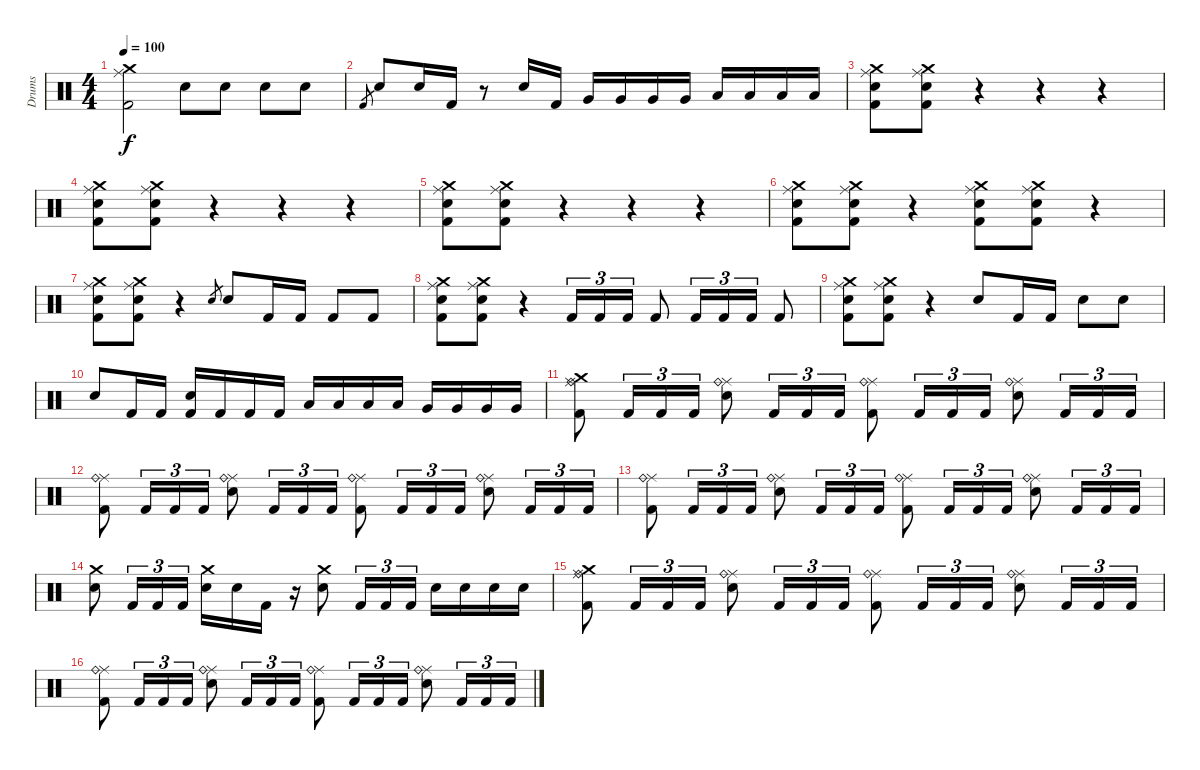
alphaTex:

\track ("Drums" "Drums") {instrument percussion}
\staff {score}
\articulation defaults
\ts (4 4)
\tempo 100
\clef neutral
\ks c
("Crash medium (hit)" "Ride (middle)" "Kick (hit) 2").2{dy f} "Snare (hit) 2".8 "Snare (hit) 2".8 "Snare (hit) 2".8 "Snare (hit) 2".8 |
"Kick (hit) 2".8{gr} "Snare (hit) 2".8 "Snare (hit) 2".16 "Kick (hit) 2".16 r.8 "Snare (hit) 2".16 "Kick (hit) 2".16 "Very Low Tom (hit)".16 "Very Low Tom (hit)".16 "Very Low Tom (hit)".16 "Very Low Tom (hit)".16 "Low Tom (hit)".16 "Low Tom (hit)".16 "Low Tom (hit)".16 "Low Tom (hit)".16 |
("Kick (hit) 2" "Snare (hit) 2" "Ride (middle)" "Crash medium (hit)").8 ("Snare (hit) 2" "Kick (hit) 2" "Ride (middle)" "Crash medium (hit)").8 r.4 r.4 r.4 |
("Kick (hit) 2" "Snare (hit) 2" "Ride (middle)" "Crash medium (hit)").8 ("Snare (hit) 2" "Kick (hit) 2" "Ride (middle)" "Crash medium (hit)").8 r.4 r.4 r.4 |
("Kick (hit) 2" "Snare (hit) 2" "Ride (middle)" "Crash medium (hit)").8 ("Snare (hit) 2" "Kick (hit) 2" "Ride (middle)" "Crash medium (hit)").8 r.4 r.4 r.4 |
("Kick (hit) 2" "Snare (hit) 2" "Ride (middle)" "Crash medium (hit)").8 ("Snare (hit) 2" "Kick (hit) 2" "Ride (middle)" "Crash medium (hit)").8 r.4 ("Kick (hit) 2" "Snare (hit) 2" "Ride (middle)" "Crash medium (hit)").8 ("Kick (hit) 2" "Snare (hit) 2" "Ride (middle)" "Crash medium (hit)").8 r.4 |
("Kick (hit) 2" "Snare (hit) 2" "Ride (middle)" "Crash medium (hit)").8 ("Snare (hit) 2" "Kick (hit) 2" "Ride (middle)" "Crash medium (hit)").8 r.4 "Snare (hit) 2".8{gr} "Snare (hit) 2".8 "Kick (hit) 2".16 "Kick (hit) 2".16 "Kick (hit) 2".8 "Kick (hit) 2".8 |
("Kick (hit) 2" "Snare (hit) 2" "Ride (middle)" "Crash medium (hit)").8 ("Snare (hit) 2" "Kick (hit) 2" "Ride (middle)" "Crash medium (hit)").8 r.4 "Kick (hit) 2".16{tu (3 2) balance 0} "Kick (hit) 2".16{tu (3 2)} "Kick (hit) 2".16{tu (3 2)} "Kick (hit) 2".8 "Kick (hit) 2".16{tu (3 2) balance 16} "Kick (hit) 2".16{tu (3 2)} "Kick (hit) 2".16{tu (3 2)} "Kick (hit) 2".8 |
("Kick (hit) 2" "Snare (hit) 2" "Ride (middle)" "Crash medium (hit)").8{balance 8} ("Snare (hit) 2" "Kick (hit) 2" "Ride (middle)" "Crash medium (hit)").8 r.4 "Snare (hit) 2".8 "Kick (hit) 2".16 "Kick (hit) 2".16 "Snare (hit) 2".8 "Snare (hit) 2".8 |
"Snare (hit) 2".8 "Kick (hit) 2".16 "Kick (hit) 2".16 ("Kick (hit) 2" "Snare (hit) 2").16 "Kick (hit) 2".16 "Kick (hit) 2".16 "Kick (hit) 2".16 "Low Tom (hit)".16 "Low Tom (hit)".16 "Low Tom (hit)".16 "Low Tom (hit)".16 "Very Low Tom (hit)".16 "Very Low Tom (hit)".16 "Very Low Tom (hit)".16 "Very Low Tom (hit)".16 |
("Kick (hit) 2" "Crash medium (hit)" "Ride (middle)" "Ride (bell)").8 "Kick (hit) 2".16{tu (3 2)} "Kick (hit) 2".16{tu (3 2)} "Kick (hit) 2".16{tu (3 2)} ("Snare (hit) 2" "Ride (middle)" "Ride (bell)").8 "Kick (hit) 2".16{tu (3 2)} "Kick (hit) 2".16{tu (3 2)} "Kick (hit) 2".16{tu (3 2)} ("Kick (hit) 2" "Ride (middle)" "Ride (bell)").8 "Kick (hit) 2".16{tu (3 2)} "Kick (hit) 2".16{tu (3 2)} "Kick (hit) 2".16{tu (3 2)} ("Snare (hit) 2" "Ride (middle)" "Ride (bell)").8 "Kick (hit) 2".16{tu (3 2)} "Kick (hit) 2".16{tu (3 2)} "Kick (hit) 2".16{tu (3 2)} |
("Kick (hit) 2" "Ride (middle)" "Ride (bell)").8 "Kick (hit) 2".16{tu (3 2)} "Kick (hit) 2".16{tu (3 2)} "Kick (hit) 2".16{tu (3 2)} ("Snare (hit) 2" "Ride (middle)" "Ride (bell)").8 "Kick (hit) 2".16{tu (3 2)} "Kick (hit) 2".16{tu (3 2)} "Kick (hit) 2".16{tu (3 2)} ("Kick (hit) 2" "Ride (middle)" "Ride (bell)").8 "Kick (hit) 2".16{tu (3 2)} "Kick (hit) 2".16{tu (3 2)} "Kick (hit) 2".16{tu (3 2)} ("Snare (hit) 2" "Ride (middle)" "Ride (bell)").8 "Kick (hit) 2".16{tu (3 2)} "Kick (hit) 2".16{tu (3 2)} "Kick (hit) 2".16{tu (3 2)} |
("Kick (hit) 2" "Ride (middle)" "Ride (bell)").8 "Kick (hit) 2".16{tu (3 2)} "Kick (hit) 2".16{tu (3 2)} "Kick (hit) 2".16{tu (3 2)} ("Snare (hit) 2" "Ride (middle)" "Ride (bell)").8 "Kick (hit) 2".16{tu (3 2)} "Kick (hit) 2".16{tu (3 2)} "Kick (hit) 2".16{tu (3 2)} ("Kick (hit) 2" "Ride (middle)" "Ride (bell)").8 "Kick (hit) 2".16{tu (3 2)} "Kick (hit) 2".16{tu (3 2)} "Kick (hit) 2".16{tu (3 2)} ("Snare (hit) 2" "Ride (middle)" "Ride (bell)").8 "Kick (hit) 2".16{tu (3 2)} "Kick (hit) 2".16{tu (3 2)} "Kick (hit) 2".16{tu (3 2)} |
("Snare (hit) 2" "Crash medium (hit)").8 "Kick (hit) 2".16{tu (3 2)} "Kick (hit) 2".16{tu (3 2)} "Kick (hit) 2".16{tu (3 2)} ("Snare (hit) 2" "Crash medium (hit)").16 "Snare (hit) 2".16 "Kick (hit) 2".16 r.16 ("Snare (hit) 2" "Crash medium (hit)").8 "Kick (hit) 2".16{tu (3 2)} "Kick (hit) 2".16{tu (3 2)} "Kick (hit) 2".16{tu (3 2)} "Snare (hit) 2".16 "Snare (hit) 2".16 "Snare (hit) 2".16 "Snare (hit) 2".16 |
("Kick (hit) 2" "Crash medium (hit)" "Ride (middle)" "Ride (bell)").8 "Kick (hit) 2".16{tu (3 2)} "Kick (hit) 2".16{tu (3 2)} "Kick (hit) 2".16{tu (3 2)} ("Snare (hit) 2" "Ride (middle)" "Ride (bell)").8 "Kick (hit) 2".16{tu (3 2)} "Kick (hit) 2".16{tu (3 2)} "Kick (hit) 2".16{tu (3 2)} ("Kick (hit) 2" "Ride (middle)" "Ride (bell)").8 "Kick (hit) 2".16{tu (3 2)} "Kick (hit) 2".16{tu (3 2)} "Kick (hit) 2".16{tu (3 2)} ("Snare (hit) 2" "Ride (middle)" "Ride (bell)").8 "Kick (hit) 2".16{tu (3 2)} "Kick (hit) 2".16{tu (3 2)} "Kick (hit) 2".16{tu (3 2)} |
("Kick (hit) 2" "Ride (middle)" "Ride (bell)").8 "Kick (hit) 2".16{tu (3 2)} "Kick (hit) 2".16{tu (3 2)} "Kick (hit) 2".16{tu (3 2)} ("Snare (hit) 2" "Ride (middle)" "Ride (bell)").8 "Kick (hit) 2".16{tu (3 2)} "Kick (hit) 2".16{tu (3 2)} "Kick (hit) 2".16{tu (3 2)} ("Kick (hit) 2" "Ride (middle)" "Ride (bell)").8 "Kick (hit) 2".16{tu (3 2)} "Kick (hit) 2".16{tu (3 2)} "Kick (hit) 2".16{tu (3 2)} ("Snare (hit) 2" "Ride (middle)" "Ride (bell)").8 "Kick (hit) 2".16{tu (3 2)} "Kick (hit) 2".16{tu (3 2)} "Kick (hit) 2".16{tu (3 2)}
